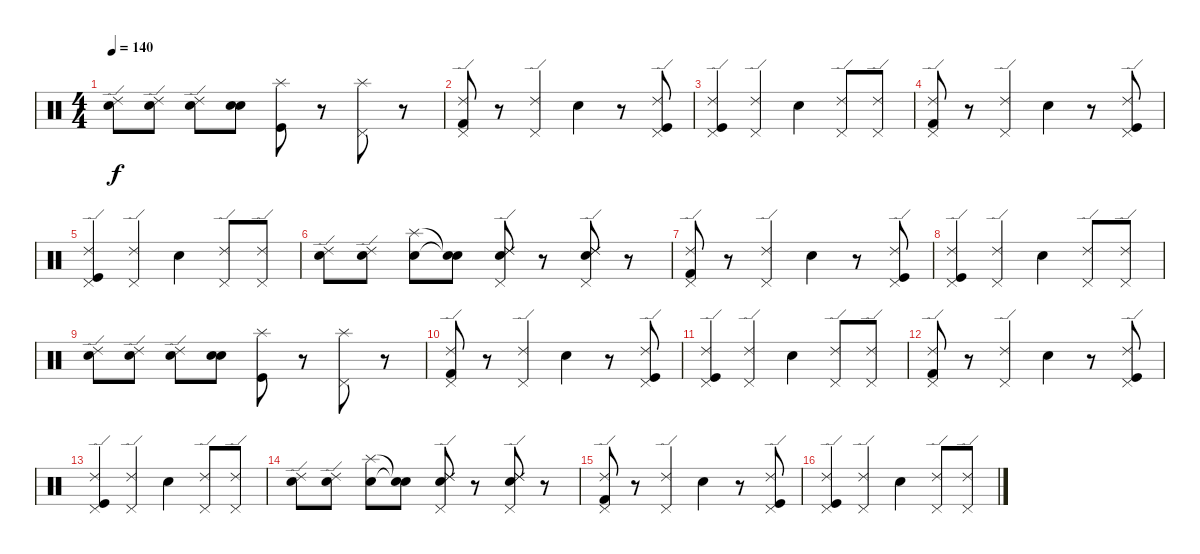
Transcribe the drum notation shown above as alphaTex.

\track "" {instrument percussion}
\staff {score}
\articulation defaults
\ts (4 4)
\tempo 140
\clef neutral
\ks c
("Ride (edge) 2" "Electric Snare (hit)").8{dy f} ("Ride (edge) 2" "Electric Snare (hit)").8 ("Ride (edge) 2" "Electric Snare (hit)").8 ("Electric Snare (hit)" "Electric Snare (hit)").8 ("Splash (hit)" "Kick (hit)").8 r.8 ("Splash (hit)" "Pedal Hi-Hat (hit)").8 r.8 |
("Ride (edge) 2" "Kick (hit) 2" "Pedal Hi-Hat (hit)").8 r.8 ("Ride (edge) 2" "Pedal Hi-Hat (hit)").4 "Electric Snare (hit)".4 r.8 ("Ride (edge) 2" "Kick (hit)" "Pedal Hi-Hat (hit)").8 |
("Ride (edge) 2" "Kick (hit)" "Pedal Hi-Hat (hit)").4 ("Ride (edge) 2" "Pedal Hi-Hat (hit)").4 "Electric Snare (hit)".4 ("Ride (edge) 2" "Pedal Hi-Hat (hit)").8 ("Ride (edge) 2" "Pedal Hi-Hat (hit)").8 |
("Ride (edge) 2" "Kick (hit) 2" "Pedal Hi-Hat (hit)").8 r.8 ("Ride (edge) 2" "Pedal Hi-Hat (hit)").4 "Electric Snare (hit)".4 r.8 ("Ride (edge) 2" "Kick (hit)" "Pedal Hi-Hat (hit)").8 |
("Ride (edge) 2" "Kick (hit)" "Pedal Hi-Hat (hit)").4 ("Ride (edge) 2" "Pedal Hi-Hat (hit)").4 "Electric Snare (hit)".4 ("Ride (edge) 2" "Pedal Hi-Hat (hit)").8 ("Ride (edge) 2" "Pedal Hi-Hat (hit)").8 |
("Ride (edge) 2" "Electric Snare (hit)").8 ("Ride (edge) 2" "Electric Snare (hit)").8 ("Splash (hit)" "Electric Snare (hit)").8 ("Electric Snare (hit)"{t} "Electric Snare (hit)"{t}).8 ("Ride (edge) 2" "Electric Snare (hit)" "Pedal Hi-Hat (hit)" "Ride (edge) 2").8 r.8 ("Ride (edge) 2" "Electric Snare (hit)" "Pedal Hi-Hat (hit)" "Ride (edge) 2").8 r.8 |
("Ride (edge) 2" "Kick (hit) 2" "Pedal Hi-Hat (hit)").8 r.8 ("Ride (edge) 2" "Pedal Hi-Hat (hit)").4 "Electric Snare (hit)".4 r.8 ("Ride (edge) 2" "Kick (hit)" "Pedal Hi-Hat (hit)").8 |
("Ride (edge) 2" "Kick (hit)" "Pedal Hi-Hat (hit)").4 ("Ride (edge) 2" "Pedal Hi-Hat (hit)").4 "Electric Snare (hit)".4 ("Ride (edge) 2" "Pedal Hi-Hat (hit)").8 ("Ride (edge) 2" "Pedal Hi-Hat (hit)").8 |
("Ride (edge) 2" "Electric Snare (hit)").8 ("Ride (edge) 2" "Electric Snare (hit)").8 ("Ride (edge) 2" "Electric Snare (hit)").8 ("Electric Snare (hit)" "Electric Snare (hit)").8 ("Splash (hit)" "Kick (hit)").8 r.8 ("Splash (hit)" "Pedal Hi-Hat (hit)").8 r.8 |
("Ride (edge) 2" "Kick (hit) 2" "Pedal Hi-Hat (hit)").8 r.8 ("Ride (edge) 2" "Pedal Hi-Hat (hit)").4 "Electric Snare (hit)".4 r.8 ("Ride (edge) 2" "Kick (hit)" "Pedal Hi-Hat (hit)").8 |
("Ride (edge) 2" "Kick (hit)" "Pedal Hi-Hat (hit)").4 ("Ride (edge) 2" "Pedal Hi-Hat (hit)").4 "Electric Snare (hit)".4 ("Ride (edge) 2" "Pedal Hi-Hat (hit)").8 ("Ride (edge) 2" "Pedal Hi-Hat (hit)").8 |
("Ride (edge) 2" "Kick (hit) 2" "Pedal Hi-Hat (hit)").8 r.8 ("Ride (edge) 2" "Pedal Hi-Hat (hit)").4 "Electric Snare (hit)".4 r.8 ("Ride (edge) 2" "Kick (hit)" "Pedal Hi-Hat (hit)").8 |
("Ride (edge) 2" "Kick (hit)" "Pedal Hi-Hat (hit)").4 ("Ride (edge) 2" "Pedal Hi-Hat (hit)").4 "Electric Snare (hit)".4 ("Ride (edge) 2" "Pedal Hi-Hat (hit)").8 ("Ride (edge) 2" "Pedal Hi-Hat (hit)").8 |
("Ride (edge) 2" "Electric Snare (hit)").8 ("Ride (edge) 2" "Electric Snare (hit)").8 ("Splash (hit)" "Electric Snare (hit)").8 ("Electric Snare (hit)"{t} "Electric Snare (hit)"{t}).8 ("Ride (edge) 2" "Electric Snare (hit)" "Pedal Hi-Hat (hit)" "Ride (edge) 2").8 r.8 ("Ride (edge) 2" "Electric Snare (hit)" "Pedal Hi-Hat (hit)" "Ride (edge) 2").8 r.8 |
("Ride (edge) 2" "Kick (hit) 2" "Pedal Hi-Hat (hit)").8 r.8 ("Ride (edge) 2" "Pedal Hi-Hat (hit)").4 "Electric Snare (hit)".4 r.8 ("Ride (edge) 2" "Kick (hit)" "Pedal Hi-Hat (hit)").8 |
("Ride (edge) 2" "Kick (hit)" "Pedal Hi-Hat (hit)").4 ("Ride (edge) 2" "Pedal Hi-Hat (hit)").4 "Electric Snare (hit)".4 ("Ride (edge) 2" "Pedal Hi-Hat (hit)").8 ("Ride (edge) 2" "Pedal Hi-Hat (hit)").8
